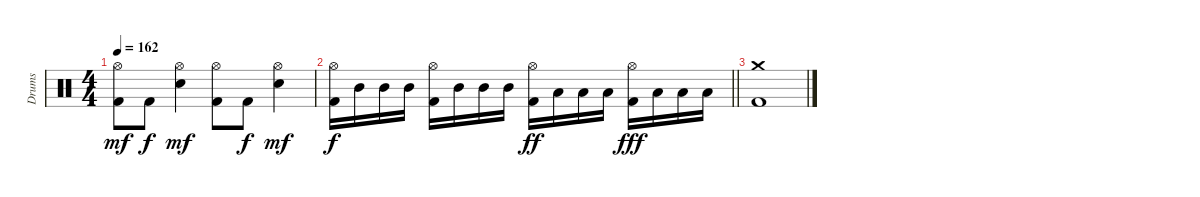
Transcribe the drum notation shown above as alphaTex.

\track ("Drums" "Drums") {instrument percussion}
\staff {score}
\articulation defaults
\ts (4 4)
\tempo 162
\clef neutral
\ks c
("Hi-Hat (open)" "Kick (hit) 2").8{dy mf} "Kick (hit) 2".8{dy f} ("Hi-Hat (open)" "Electric Snare (hit)").4{dy mf} ("Hi-Hat (open)" "Kick (hit) 2").8 "Kick (hit) 2".8{dy f} ("Hi-Hat (open)" "Electric Snare (hit)").4{dy mf} |
\barLineRight lightlight
("Hi-Hat (open)" "Kick (hit) 2").16{dy f} "Mid Tom (hit)".16 "Mid Tom (hit)".16 "Mid Tom (hit)".16 ("Hi-Hat (open)" "Kick (hit) 2").16 "Mid Tom (hit)".16 "Mid Tom (hit)".16 "Mid Tom (hit)".16 ("Hi-Hat (open)" "Kick (hit) 2").16{dy ff} "Low Tom (hit)".16 "Low Tom (hit)".16 "Low Tom (hit)".16 ("Hi-Hat (open)" "Kick (hit) 2").16{dy fff} "Low Floor Tom (hit)".16 "Low Floor Tom (hit)".16 "Low Floor Tom (hit)".16 |
("Crash medium (hit)" "Kick (hit) 2").1
